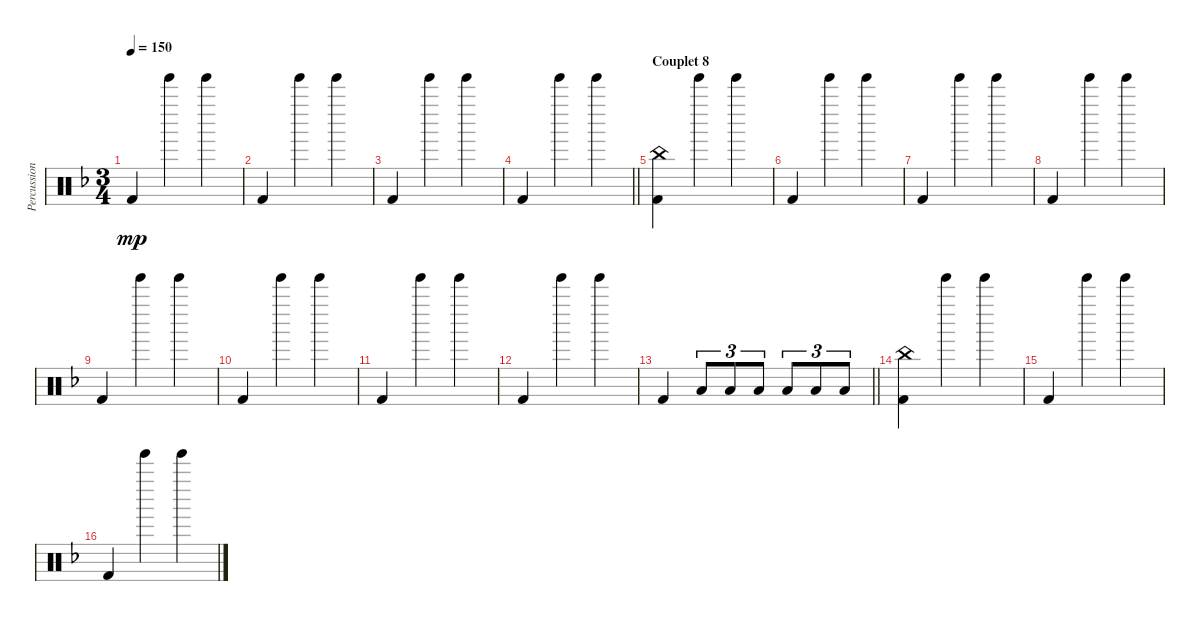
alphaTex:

\track ("Percussions" "Percussion") {instrument percussion}
\staff {score}
\articulation defaults
\ts (3 4)
\tempo 150
\clef neutral
\ks f "Kick (hit) 2".4{dy mp} "Tinkle Bell (hit)".4 "Tinkle Bell (hit)".4
|
"Kick (hit) 2".4 "Tinkle Bell (hit)".4 "Tinkle Bell (hit)".4 |
"Kick (hit) 2".4 "Tinkle Bell (hit)".4 "Tinkle Bell (hit)".4 |
\barLineRight lightlight "Kick (hit) 2".4 "Tinkle Bell (hit)".4 "Tinkle Bell (hit)".4
|
\section ("" "Couplet 8")
("China (hit)" "Kick (hit) 2").4 "Tinkle Bell (hit)".4 "Tinkle Bell (hit)".4 |
"Kick (hit) 2".4 "Tinkle Bell (hit)".4 "Tinkle Bell (hit)".4 |
"Kick (hit) 2".4 "Tinkle Bell (hit)".4 "Tinkle Bell (hit)".4 |
"Kick (hit) 2".4 "Tinkle Bell (hit)".4 "Tinkle Bell (hit)".4 |
"Kick (hit) 2".4 "Tinkle Bell (hit)".4 "Tinkle Bell (hit)".4 |
"Kick (hit) 2".4 "Tinkle Bell (hit)".4 "Tinkle Bell (hit)".4 |
"Kick (hit) 2".4 "Tinkle Bell (hit)".4 "Tinkle Bell (hit)".4 |
"Kick (hit) 2".4 "Tinkle Bell (hit)".4 "Tinkle Bell (hit)".4 |
\barLineRight lightlight "Kick (hit) 2".4 "Low Tom (hit)".8{tu (3 2)} "Low Tom (hit)".8{tu (3 2)} "Low Tom (hit)".8{tu (3 2)} "Low Tom (hit)".8{tu (3 2)} "Low Tom (hit)".8{tu (3 2)} "Low Tom (hit)".8{tu (3 2)}
|
("China (hit)" "Kick (hit) 2").4 "Tinkle Bell (hit)".4 "Tinkle Bell (hit)".4 |
"Kick (hit) 2".4 "Tinkle Bell (hit)".4 "Tinkle Bell (hit)".4 |
"Kick (hit) 2".4 "Tinkle Bell (hit)".4 "Tinkle Bell (hit)".4
